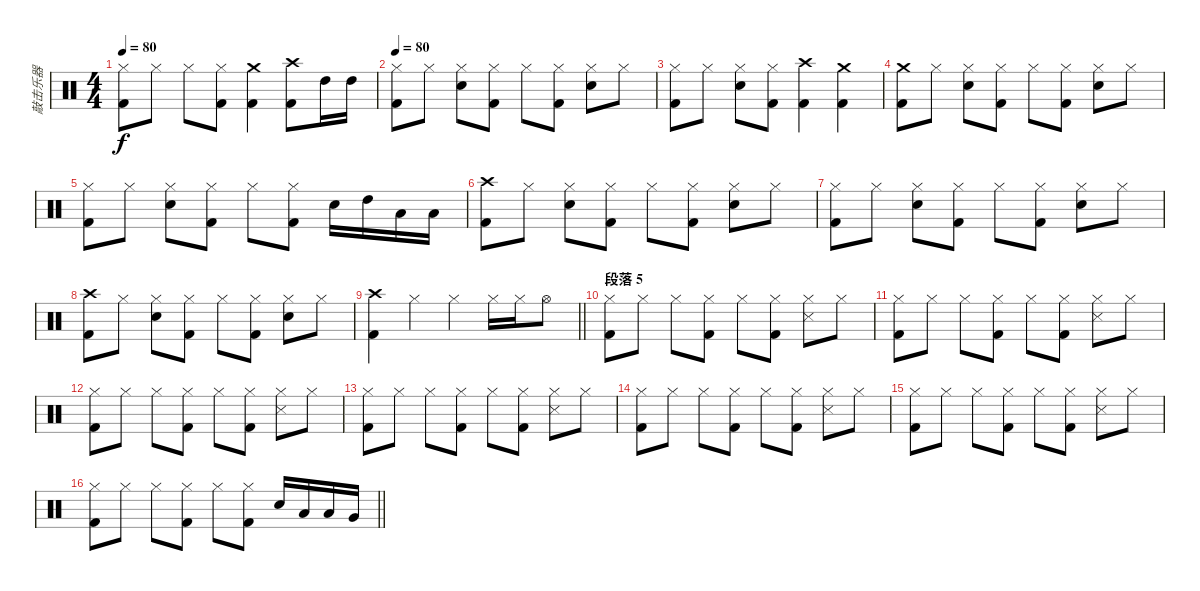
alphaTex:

\track ("敲击乐器" "敲击乐器") {instrument percussion}
\staff {score}
\articulation defaults
\ts (4 4)
\tempo 80
\clef neutral
\ks c
("Hi-Hat (closed)" "Kick (hit) 2").8{dy f} "Hi-Hat (closed)".8 "Hi-Hat (closed)".8 ("Hi-Hat (closed)" "Kick (hit) 2").8 ("Crash medium (hit)" "Kick (hit) 2").4 ("Crash high (hit)" "Kick (hit) 2").8 "High Tom (hit)".16 "High Tom (hit)".16 |
\tempo 80
("Hi-Hat (closed)" "Kick (hit) 2").8 "Hi-Hat (closed)".8 ("Hi-Hat (closed)" "Snare (hit) 2").8 ("Hi-Hat (closed)" "Kick (hit) 2").8 "Hi-Hat (closed)".8 ("Hi-Hat (closed)" "Kick (hit) 2").8 ("Hi-Hat (closed)" "Snare (hit) 2").8 "Hi-Hat (closed)".8 |
("Hi-Hat (closed)" "Kick (hit) 2").8 "Hi-Hat (closed)".8 ("Hi-Hat (closed)" "Snare (hit) 2").8 ("Hi-Hat (closed)" "Kick (hit) 2").8 ("Crash high (hit)" "Kick (hit) 2").4 ("Crash medium (hit)" "Kick (hit) 2").4 |
("Crash medium (hit)" "Kick (hit) 2").8 "Hi-Hat (closed)".8 ("Hi-Hat (closed)" "Snare (hit) 2").8 ("Hi-Hat (closed)" "Kick (hit) 2").8 "Hi-Hat (closed)".8 ("Hi-Hat (closed)" "Kick (hit) 2").8 ("Hi-Hat (closed)" "Snare (hit) 2").8 "Hi-Hat (closed)".8 |
("Hi-Hat (closed)" "Kick (hit) 2").8 "Hi-Hat (closed)".8 ("Hi-Hat (closed)" "Snare (hit) 2").8 ("Hi-Hat (closed)" "Kick (hit) 2").8 "Hi-Hat (closed)".8 ("Hi-Hat (closed)" "Kick (hit) 2").8 "Snare (hit) 2".16 "High Tom (hit)".16 "Low Tom (hit)".16 "Low Tom (hit)".16 |
("Crash high (hit)" "Kick (hit) 2").8 "Hi-Hat (closed)".8 ("Hi-Hat (closed)" "Snare (hit) 2").8 ("Hi-Hat (closed)" "Kick (hit) 2").8 "Hi-Hat (closed)".8 ("Hi-Hat (closed)" "Kick (hit) 2").8 ("Hi-Hat (closed)" "Snare (hit) 2").8 "Hi-Hat (closed)".8 |
("Hi-Hat (closed)" "Kick (hit) 2").8 "Hi-Hat (closed)".8 ("Hi-Hat (closed)" "Snare (hit) 2").8 ("Hi-Hat (closed)" "Kick (hit) 2").8 "Hi-Hat (closed)".8 ("Hi-Hat (closed)" "Kick (hit) 2").8 ("Hi-Hat (closed)" "Snare (hit) 2").8 "Hi-Hat (closed)".8 |
("Crash high (hit)" "Kick (hit) 2").8 "Hi-Hat (closed)".8 ("Hi-Hat (closed)" "Snare (hit) 2").8 ("Hi-Hat (closed)" "Kick (hit) 2").8 "Hi-Hat (closed)".8 ("Hi-Hat (closed)" "Kick (hit) 2").8 ("Hi-Hat (closed)" "Snare (hit) 2").8 "Hi-Hat (closed)".8 |
\barLineRight lightlight
("Crash high (hit)" "Kick (hit) 2").4 "Hi-Hat (closed)".4 "Hi-Hat (closed)".4 "Hi-Hat (closed)".16 "Hi-Hat (closed)".16 "Hi-Hat (open)".8 |
\section ("" "段落 5")
("Hi-Hat (closed)" "Kick (hit) 2").8 "Hi-Hat (closed)".8 "Hi-Hat (closed)".8 ("Hi-Hat (closed)" "Kick (hit) 2").8 "Hi-Hat (closed)".8 ("Hi-Hat (closed)" "Kick (hit) 2").8 ("Hi-Hat (closed)" "Snare (side stick) 3").8 "Hi-Hat (closed)".8 |
("Hi-Hat (closed)" "Kick (hit) 2").8 "Hi-Hat (closed)".8 "Hi-Hat (closed)".8 ("Hi-Hat (closed)" "Kick (hit) 2").8 "Hi-Hat (closed)".8 ("Hi-Hat (closed)" "Kick (hit) 2").8 ("Hi-Hat (closed)" "Snare (side stick) 3").8 "Hi-Hat (closed)".8 |
("Hi-Hat (closed)" "Kick (hit) 2").8 "Hi-Hat (closed)".8 "Hi-Hat (closed)".8 ("Hi-Hat (closed)" "Kick (hit) 2").8 "Hi-Hat (closed)".8 ("Hi-Hat (closed)" "Kick (hit) 2").8 ("Hi-Hat (closed)" "Snare (side stick) 3").8 "Hi-Hat (closed)".8 |
("Hi-Hat (closed)" "Kick (hit) 2").8 "Hi-Hat (closed)".8 "Hi-Hat (closed)".8 ("Hi-Hat (closed)" "Kick (hit) 2").8 "Hi-Hat (closed)".8 ("Hi-Hat (closed)" "Kick (hit) 2").8 ("Hi-Hat (closed)" "Snare (side stick) 3").8 "Hi-Hat (closed)".8 |
("Hi-Hat (closed)" "Kick (hit) 2").8 "Hi-Hat (closed)".8 "Hi-Hat (closed)".8 ("Hi-Hat (closed)" "Kick (hit) 2").8 "Hi-Hat (closed)".8 ("Hi-Hat (closed)" "Kick (hit) 2").8 ("Hi-Hat (closed)" "Snare (side stick) 3").8 "Hi-Hat (closed)".8 |
("Hi-Hat (closed)" "Kick (hit) 2").8 "Hi-Hat (closed)".8 "Hi-Hat (closed)".8 ("Hi-Hat (closed)" "Kick (hit) 2").8 "Hi-Hat (closed)".8 ("Hi-Hat (closed)" "Kick (hit) 2").8 ("Hi-Hat (closed)" "Snare (side stick) 3").8 "Hi-Hat (closed)".8 |
\barLineRight lightlight
("Hi-Hat (closed)" "Kick (hit) 2").8 "Hi-Hat (closed)".8 "Hi-Hat (closed)".8 ("Hi-Hat (closed)" "Kick (hit) 2").8 "Hi-Hat (closed)".8 ("Hi-Hat (closed)" "Kick (hit) 2").8 "Snare (hit) 2".16 "Low Tom (hit)".16 "Low Tom (hit)".16 "Very Low Tom (hit)".16
